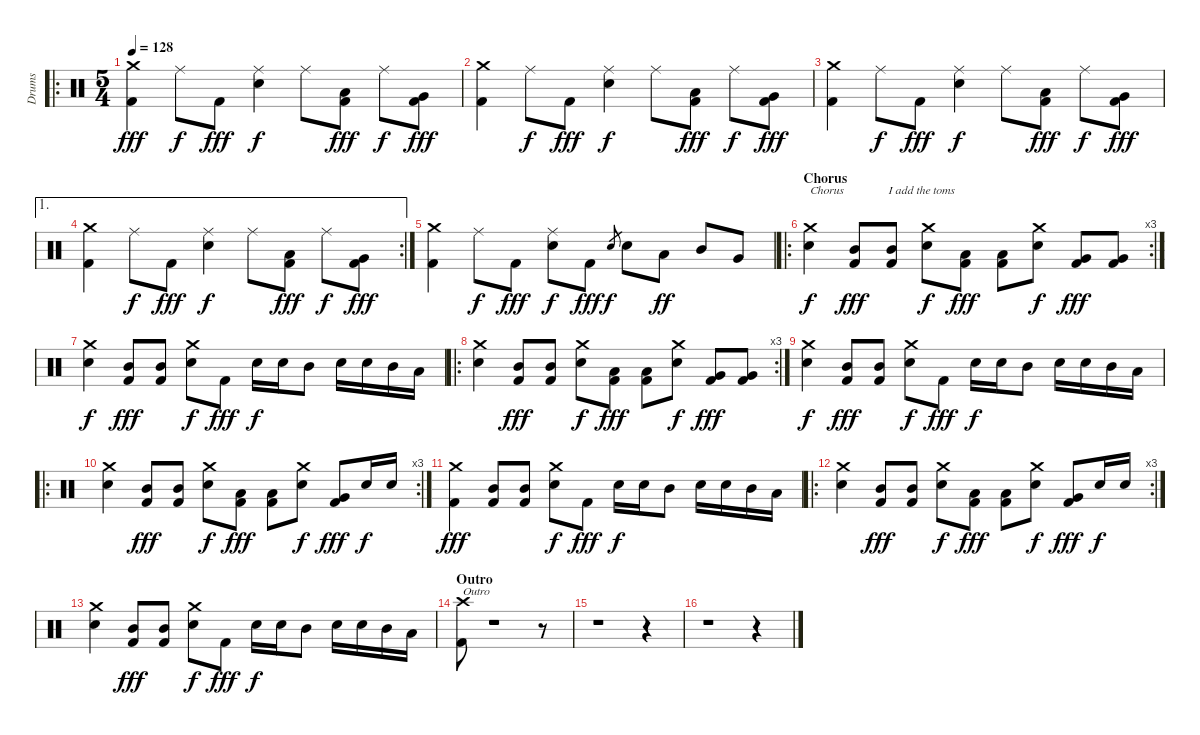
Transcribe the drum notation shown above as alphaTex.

\track ("Drums" "Drums") {instrument percussion}
\staff {score}
\articulation defaults
\ro
\ts (5 4)
\tempo 128
\clef neutral
\ks c
("Crash medium (hit)" "Kick (hit) 2").4{dy fff} "Ride (middle)".8{dy f} "Kick (hit) 2".8{dy fff} ("Ride (middle)" "Snare (hit) 2").4{dy f} "Ride (middle)".8 ("Low Tom (hit)" "Kick (hit) 2").8{dy fff} "Ride (middle)".8{dy f} ("Very Low Tom (hit)" "Kick (hit) 2").8{dy fff} |
("Crash medium (hit)" "Kick (hit) 2").4 "Ride (middle)".8{dy f} "Kick (hit) 2".8{dy fff} ("Ride (middle)" "Snare (hit) 2").4{dy f} "Ride (middle)".8 ("Low Tom (hit)" "Kick (hit) 2").8{dy fff} "Ride (middle)".8{dy f} ("Very Low Tom (hit)" "Kick (hit) 2").8{dy fff} |
("Crash medium (hit)" "Kick (hit) 2").4 "Ride (middle)".8{dy f} "Kick (hit) 2".8{dy fff} ("Ride (middle)" "Snare (hit) 2").4{dy f} "Ride (middle)".8 ("Low Tom (hit)" "Kick (hit) 2").8{dy fff} "Ride (middle)".8{dy f} ("Very Low Tom (hit)" "Kick (hit) 2").8{dy fff} |
\ae 1
\rc 2
("Crash medium (hit)" "Kick (hit) 2").4 "Ride (middle)".8{dy f} "Kick (hit) 2".8{dy fff} ("Ride (middle)" "Snare (hit) 2").4{dy f} "Ride (middle)".8 ("Low Tom (hit)" "Kick (hit) 2").8{dy fff} "Ride (middle)".8{dy f} ("Very Low Tom (hit)" "Kick (hit) 2").8{dy fff} |
("Crash medium (hit)" "Kick (hit) 2").4 "Ride (middle)".8{dy f} "Kick (hit) 2".8{dy fff} ("Ride (middle)" "Snare (hit) 2").8{dy f} "Kick (hit) 2".8{dy fff} "Snare (hit) 2".8{gr dy f} "Snare (hit) 2".8 "Low Tom (hit)".8{dy ff} "Mid Tom (hit)".8 "Very Low Tom (hit)".8 |
\ro
\rc 3
\section ("" "Chorus")
("Crash medium (hit)" "Snare (hit) 2").4{txt "Chorus               I add the toms" dy f} ("Mid Tom (hit)" "Kick (hit) 2").8{dy fff} ("Mid Tom (hit)" "Kick (hit) 2").8 ("Crash medium (hit)" "Snare (hit) 2").8{dy f} ("Low Tom (hit)" "Kick (hit) 2").8{dy fff} ("Low Tom (hit)" "Kick (hit) 2").8 ("Crash medium (hit)" "Snare (hit) 2").8{dy f} ("Very Low Tom (hit)" "Kick (hit) 2").8{dy fff} ("Very Low Tom (hit)" "Kick (hit) 2").8 |
("Crash medium (hit)" "Snare (hit) 2").4{dy f} ("Mid Tom (hit)" "Kick (hit) 2").8{dy fff} ("Mid Tom (hit)" "Kick (hit) 2").8 ("Crash medium (hit)" "Snare (hit) 2").8{dy f} "Kick (hit) 2".8{dy fff} "Snare (hit) 2".16{dy f} "Snare (hit) 2".16 "Mid Tom (hit)".8 "Snare (hit) 2".16 "Snare (hit) 2".16 "Mid Tom (hit)".16 "Low Tom (hit)".16 |
\ro
\rc 3
("Crash medium (hit)" "Snare (hit) 2").4 ("Mid Tom (hit)" "Kick (hit) 2").8{dy fff} ("Mid Tom (hit)" "Kick (hit) 2").8 ("Crash medium (hit)" "Snare (hit) 2").8{dy f} ("Low Tom (hit)" "Kick (hit) 2").8{dy fff} ("Low Tom (hit)" "Kick (hit) 2").8 ("Crash medium (hit)" "Snare (hit) 2").8{dy f} ("Very Low Tom (hit)" "Kick (hit) 2").8{dy fff} ("Very Low Tom (hit)" "Kick (hit) 2").8 |
("Crash medium (hit)" "Snare (hit) 2").4{dy f} ("Mid Tom (hit)" "Kick (hit) 2").8{dy fff} ("Mid Tom (hit)" "Kick (hit) 2").8 ("Crash medium (hit)" "Snare (hit) 2").8{dy f} "Kick (hit) 2".8{dy fff} "Snare (hit) 2".16{dy f} "Snare (hit) 2".16 "Mid Tom (hit)".8 "Snare (hit) 2".16 "Snare (hit) 2".16 "Mid Tom (hit)".16 "Low Tom (hit)".16 |
\ro
\rc 3
("Crash medium (hit)" "Snare (hit) 2").4 ("Mid Tom (hit)" "Kick (hit) 2").8{dy fff} ("Mid Tom (hit)" "Kick (hit) 2").8 ("Crash medium (hit)" "Snare (hit) 2").8{dy f} ("Low Tom (hit)" "Kick (hit) 2").8{dy fff} ("Low Tom (hit)" "Kick (hit) 2").8 ("Crash medium (hit)" "Snare (hit) 2").8{dy f} ("Very Low Tom (hit)" "Kick (hit) 2").8{dy fff} "Snare (hit) 2".16{dy f} "Snare (hit) 2".16 |
("Crash medium (hit)" "Kick (hit) 2").4{dy fff} ("Mid Tom (hit)" "Kick (hit) 2").8 ("Mid Tom (hit)" "Kick (hit) 2").8 ("Crash medium (hit)" "Snare (hit) 2").8{dy f} "Kick (hit) 2".8{dy fff} "Snare (hit) 2".16{dy f} "Snare (hit) 2".16 "Mid Tom (hit)".8 "Snare (hit) 2".16 "Snare (hit) 2".16 "Mid Tom (hit)".16 "Low Tom (hit)".16 |
\ro
\rc 3
("Crash medium (hit)" "Snare (hit) 2").4 ("Mid Tom (hit)" "Kick (hit) 2").8{dy fff} ("Mid Tom (hit)" "Kick (hit) 2").8 ("Crash medium (hit)" "Snare (hit) 2").8{dy f} ("Low Tom (hit)" "Kick (hit) 2").8{dy fff} ("Low Tom (hit)" "Kick (hit) 2").8 ("Crash medium (hit)" "Snare (hit) 2").8{dy f} ("Very Low Tom (hit)" "Kick (hit) 2").8{dy fff} "Snare (hit) 2".16{dy f} "Snare (hit) 2".16 |
("Crash medium (hit)" "Snare (hit) 2").4 ("Mid Tom (hit)" "Kick (hit) 2").8{dy fff} ("Mid Tom (hit)" "Kick (hit) 2").8 ("Crash medium (hit)" "Snare (hit) 2").8{dy f} "Kick (hit) 2".8{dy fff} "Snare (hit) 2".16{dy f} "Snare (hit) 2".16 "Mid Tom (hit)".8 "Snare (hit) 2".16 "Snare (hit) 2".16 "Mid Tom (hit)".16 "Low Tom (hit)".16 |
\section ("" "Outro")
("Crash high (hit)" "Kick (hit) 2").8{txt "Outro"} r.1 r.8 |
r.1 r.4 |
r.1 r.4
